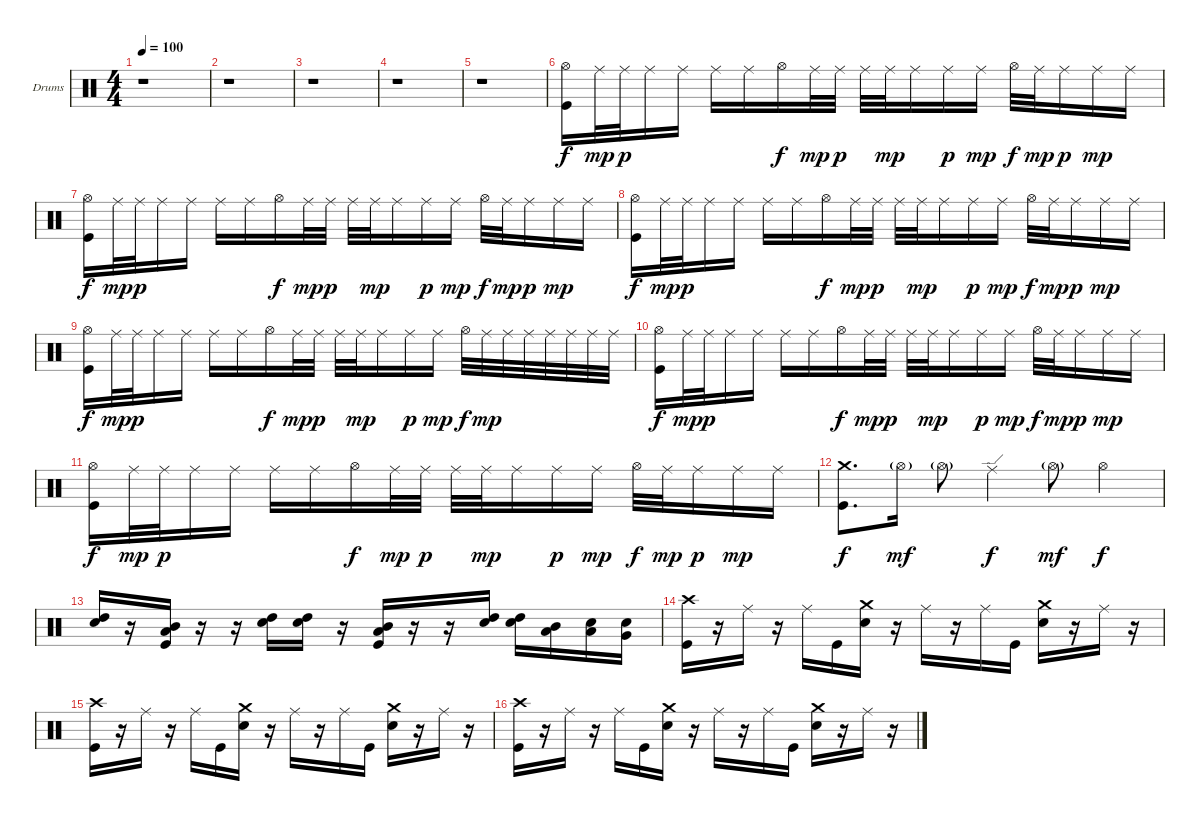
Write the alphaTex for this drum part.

\bracketExtendMode groupsimilarinstruments
\firstSystemTrackNameOrientation horizontal
\otherSystemsTrackNameOrientation horizontal
\track ("Drumkit (Christoph)" "Drums") {instrument percussion}
\staff {score}
\articulation defaults
\ts (4 4)
\tempo 100
\clef neutral
\ks c
r.1{dy f} |
r.1 |
r.1 |
r.1 |
r.1 |
("Hi-Hat (open)" "Kick (hit)").16 "Ride (middle)".32{dy mp} "Ride (middle)".32{dy p} "Ride (middle)".16 "Ride (middle)".16 "Ride (middle)".16 "Ride (middle)".16 "Hi-Hat (open)".16{dy f} "Ride (middle)".32{dy mp} "Ride (middle)".32{dy p} "Ride (middle)".32 "Ride (middle)".32{dy mp} "Ride (middle)".16 "Ride (middle)".16{dy p} "Ride (middle)".16{dy mp} "Hi-Hat (open)".32{dy f} "Ride (middle)".32{dy mp} "Ride (middle)".16{dy p} "Ride (middle)".16{dy mp} "Ride (middle)".16 |
("Hi-Hat (open)" "Kick (hit)").16{dy f} "Ride (middle)".32{dy mp} "Ride (middle)".32{dy p} "Ride (middle)".16 "Ride (middle)".16 "Ride (middle)".16 "Ride (middle)".16 "Hi-Hat (open)".16{dy f} "Ride (middle)".32{dy mp} "Ride (middle)".32{dy p} "Ride (middle)".32 "Ride (middle)".32{dy mp} "Ride (middle)".16 "Ride (middle)".16{dy p} "Ride (middle)".16{dy mp} "Hi-Hat (open)".32{dy f} "Ride (middle)".32{dy mp} "Ride (middle)".16{dy p} "Ride (middle)".16{dy mp} "Ride (middle)".16 |
("Hi-Hat (open)" "Kick (hit)").16{dy f} "Ride (middle)".32{dy mp} "Ride (middle)".32{dy p} "Ride (middle)".16 "Ride (middle)".16 "Ride (middle)".16 "Ride (middle)".16 "Hi-Hat (open)".16{dy f} "Ride (middle)".32{dy mp} "Ride (middle)".32{dy p} "Ride (middle)".32 "Ride (middle)".32{dy mp} "Ride (middle)".16 "Ride (middle)".16{dy p} "Ride (middle)".16{dy mp} "Hi-Hat (open)".32{dy f} "Ride (middle)".32{dy mp} "Ride (middle)".16{dy p} "Ride (middle)".16{dy mp} "Ride (middle)".16 |
("Hi-Hat (open)" "Kick (hit)").16{dy f} "Ride (middle)".32{dy mp} "Ride (middle)".32{dy p} "Ride (middle)".16 "Ride (middle)".16 "Ride (middle)".16 "Ride (middle)".16 "Hi-Hat (open)".16{dy f} "Ride (middle)".32{dy mp} "Ride (middle)".32{dy p} "Ride (middle)".32 "Ride (middle)".32{dy mp} "Ride (middle)".16 "Ride (middle)".16{dy p} "Ride (middle)".16{dy mp} "Hi-Hat (open)".32{dy f} "Ride (middle)".32{dy mp} "Ride (middle)".32 "Ride (middle)".32 "Ride (middle)".32 "Ride (middle)".32 "Ride (middle)".32 "Ride (middle)".32 |
("Hi-Hat (open)" "Kick (hit)").16{dy f} "Ride (middle)".32{dy mp} "Ride (middle)".32{dy p} "Ride (middle)".16 "Ride (middle)".16 "Ride (middle)".16 "Ride (middle)".16 "Hi-Hat (open)".16{dy f} "Ride (middle)".32{dy mp} "Ride (middle)".32{dy p} "Ride (middle)".32 "Ride (middle)".32{dy mp} "Ride (middle)".16 "Ride (middle)".16{dy p} "Ride (middle)".16{dy mp} "Hi-Hat (open)".32{dy f} "Ride (middle)".32{dy mp} "Ride (middle)".16{dy p} "Ride (middle)".16{dy mp} "Ride (middle)".16 |
("Hi-Hat (open)" "Kick (hit)").16{dy f} "Ride (middle)".32{dy mp} "Ride (middle)".32{dy p} "Ride (middle)".16 "Ride (middle)".16 "Ride (middle)".16 "Ride (middle)".16 "Hi-Hat (open)".16{dy f} "Ride (middle)".32{dy mp} "Ride (middle)".32{dy p} "Ride (middle)".32 "Ride (middle)".32{dy mp} "Ride (middle)".16 "Ride (middle)".16{dy p} "Ride (middle)".16{dy mp} "Hi-Hat (open)".32{dy f} "Ride (middle)".32{dy mp} "Ride (middle)".16{dy p} "Ride (middle)".16{dy mp} "Ride (middle)".16 |
("Crash medium (hit)" "Kick (hit)").8{d dy f} "Hi-Hat (open)"{g}.16{dy mf} "Hi-Hat (open)"{g}.8 "Ride (edge)".4{dy f} "Hi-Hat (open)"{g}.8{dy mf} "Hi-Hat (open)".4{dy f} |
("High Tom (hit)" "Snare (hit) 2").16 r.16 ("Mid Tom (hit)" "Low Tom (hit)" "Kick (hit)").16 r.16 r.16 ("High Tom (hit)" "Snare (hit) 2").16 ("High Tom (hit)" "Snare (hit) 2").16 r.16 ("Mid Tom (hit)" "Low Tom (hit)" "Kick (hit)").16 r.16 r.16 ("High Tom (hit)" "Snare (hit) 2").16 ("High Tom (hit)" "Snare (hit) 2").16 ("Mid Tom (hit)" "Low Tom (hit)").16 ("Low Tom (hit)" "Snare (hit) 2").16 ("Very Low Tom (hit)" "Snare (hit) 2").16 |
("Crash high (hit)" "Kick (hit)").16 r.16 "Ride (middle)".16 r.16 "Ride (middle)".16 "Kick (hit)".16 ("Crash medium (hit)" "Snare (hit) 2").16 r.16 "Ride (middle)".16 r.16 "Ride (middle)".16 "Kick (hit)".16 ("Crash medium (hit)" "Snare (hit) 2").16 r.16 "Ride (middle)".16 r.16 |
("Crash high (hit)" "Kick (hit)").16 r.16 "Ride (middle)".16 r.16 "Ride (middle)".16 "Kick (hit)".16 ("Crash medium (hit)" "Snare (hit) 2").16 r.16 "Ride (middle)".16 r.16 "Ride (middle)".16 "Kick (hit)".16 ("Crash medium (hit)" "Snare (hit) 2").16 r.16 "Ride (middle)".16 r.16 |
("Crash high (hit)" "Kick (hit)").16 r.16 "Ride (middle)".16 r.16 "Ride (middle)".16 "Kick (hit)".16 ("Crash medium (hit)" "Snare (hit) 2").16 r.16 "Ride (middle)".16 r.16 "Ride (middle)".16 "Kick (hit)".16 ("Crash medium (hit)" "Snare (hit) 2").16 r.16 "Ride (middle)".16 r.16
